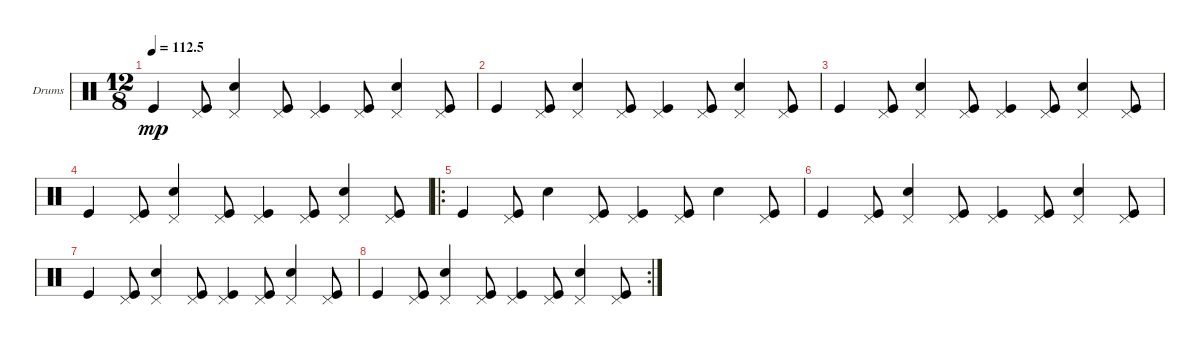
\defaultSystemsLayout 4
\bracketExtendMode groupsimilarinstruments
\firstSystemTrackNameOrientation horizontal
\otherSystemsTrackNameOrientation horizontal
\track ("Drumkit" "Drums") {instrument percussion}
\staff {score}
\articulation defaults
\ts (12 8)
\tempo
112.5
\accidentals auto
\clef neutral
\ottava regular
\simile none
\ks c "Kick (hit)".4{dy mp}
("Pedal Hi-Hat (hit)" "Kick (hit)").8 ("Pedal Hi-Hat (hit)" "Snare (hit) 2").4 ("Pedal Hi-Hat (hit)" "Kick (hit)").8 ("Pedal Hi-Hat (hit)" "Kick (hit)").4 ("Pedal Hi-Hat (hit)" "Kick (hit)").8 ("Pedal Hi-Hat (hit)" "Snare (hit) 2").4 ("Pedal Hi-Hat (hit)" "Kick (hit)").8 |
"Kick (hit)".4 ("Pedal Hi-Hat (hit)" "Kick (hit)").8 ("Pedal Hi-Hat (hit)" "Snare (hit) 2").4 ("Pedal Hi-Hat (hit)" "Kick (hit)").8 ("Pedal Hi-Hat (hit)" "Kick (hit)").4 ("Pedal Hi-Hat (hit)" "Kick (hit)").8 ("Pedal Hi-Hat (hit)" "Snare (hit) 2").4 ("Pedal Hi-Hat (hit)" "Kick (hit)").8 |
"Kick (hit)".4 ("Pedal Hi-Hat (hit)" "Kick (hit)").8 ("Pedal Hi-Hat (hit)" "Snare (hit) 2").4 ("Pedal Hi-Hat (hit)" "Kick (hit)").8 ("Pedal Hi-Hat (hit)" "Kick (hit)").4 ("Pedal Hi-Hat (hit)" "Kick (hit)").8 ("Pedal Hi-Hat (hit)" "Snare (hit) 2").4 ("Pedal Hi-Hat (hit)" "Kick (hit)").8 |
"Kick (hit)".4 ("Pedal Hi-Hat (hit)" "Kick (hit)").8 ("Pedal Hi-Hat (hit)" "Snare (hit) 2").4 ("Pedal Hi-Hat (hit)" "Kick (hit)").8 ("Pedal Hi-Hat (hit)" "Kick (hit)").4 ("Pedal Hi-Hat (hit)" "Kick (hit)").8 ("Pedal Hi-Hat (hit)" "Snare (hit) 2").4 ("Pedal Hi-Hat (hit)" "Kick (hit)").8 |
\ro "Kick (hit)".4
("Pedal Hi-Hat (hit)" "Kick (hit)").8 "Snare (hit) 2".4 ("Pedal Hi-Hat (hit)" "Kick (hit)").8 ("Pedal Hi-Hat (hit)" "Kick (hit)").4 ("Pedal Hi-Hat (hit)" "Kick (hit)").8 "Snare (hit) 2".4 ("Pedal Hi-Hat (hit)" "Kick (hit)").8 |
"Kick (hit)".4 ("Pedal Hi-Hat (hit)" "Kick (hit)").8 ("Pedal Hi-Hat (hit)" "Snare (hit) 2").4 ("Pedal Hi-Hat (hit)" "Kick (hit)").8 ("Pedal Hi-Hat (hit)" "Kick (hit)").4 ("Pedal Hi-Hat (hit)" "Kick (hit)").8 ("Pedal Hi-Hat (hit)" "Snare (hit) 2").4 ("Pedal Hi-Hat (hit)" "Kick (hit)").8 |
"Kick (hit)".4 ("Pedal Hi-Hat (hit)" "Kick (hit)").8 ("Pedal Hi-Hat (hit)" "Snare (hit) 2").4 ("Pedal Hi-Hat (hit)" "Kick (hit)").8 ("Pedal Hi-Hat (hit)" "Kick (hit)").4 ("Pedal Hi-Hat (hit)" "Kick (hit)").8 ("Pedal Hi-Hat (hit)" "Snare (hit) 2").4 ("Pedal Hi-Hat (hit)" "Kick (hit)").8 |
\rc 2 "Kick (hit)".4
("Pedal Hi-Hat (hit)" "Kick (hit)").8 ("Pedal Hi-Hat (hit)" "Snare (hit) 2").4 ("Pedal Hi-Hat (hit)" "Kick (hit)").8 ("Pedal Hi-Hat (hit)" "Kick (hit)").4 ("Pedal Hi-Hat (hit)" "Kick (hit)").8 ("Pedal Hi-Hat (hit)" "Snare (hit) 2").4 ("Pedal Hi-Hat (hit)" "Kick (hit)").8
